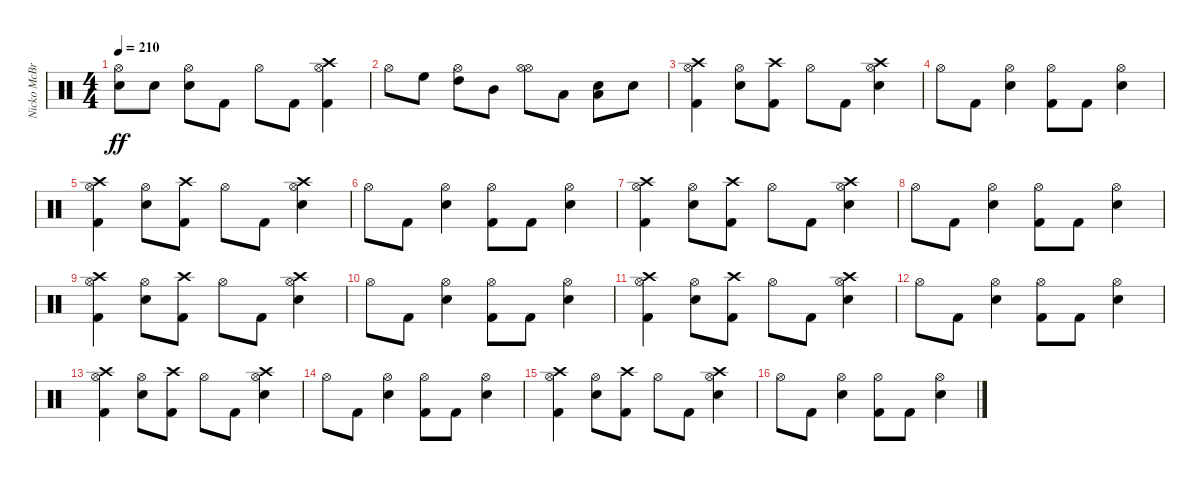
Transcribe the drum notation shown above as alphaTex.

\track ("Nicko McBrain" "Nicko McBr") {instrument percussion}
\staff {score}
\articulation defaults
\ts (4 4)
\tempo 210
\clef neutral
\ks c
("Snare (hit) 2" "Hi-Hat (open)").8{dy ff} "Snare (hit) 2".8 ("Snare (hit) 2" "Hi-Hat (open)").8 "Kick (hit) 2".8 "Hi-Hat (open)".8 "Kick (hit) 2".8 ("Kick (hit) 2" "Hi-Hat (open)" "Crash high (hit)").4 |
"Hi-Hat (open)".8 "High Floor Tom (hit)".8 ("Hi-Hat (open)" "High Tom (hit)").8 "Mid Tom (hit)".8 ("Hi-Hat (open)" "Hi-Hat (open)").8 "Low Tom (hit)".8 ("Snare (hit) 2" "Low Tom (hit)").8 "Snare (hit) 2".8 |
("Kick (hit) 2" "Hi-Hat (open)" "Crash high (hit)").4 ("Snare (hit) 2" "Hi-Hat (open)").8 ("Kick (hit) 2" "Crash high (hit)").8 "Hi-Hat (open)".8 "Kick (hit) 2".8 ("Snare (hit) 2" "Hi-Hat (open)" "Crash high (hit)").4 |
"Hi-Hat (open)".8 "Kick (hit) 2".8 ("Snare (hit) 2" "Hi-Hat (open)").4 ("Kick (hit) 2" "Hi-Hat (open)").8 "Kick (hit) 2".8 ("Snare (hit) 2" "Hi-Hat (open)").4 |
("Kick (hit) 2" "Hi-Hat (open)" "Crash high (hit)").4 ("Snare (hit) 2" "Hi-Hat (open)").8 ("Kick (hit) 2" "Crash high (hit)").8 "Hi-Hat (open)".8 "Kick (hit) 2".8 ("Snare (hit) 2" "Hi-Hat (open)" "Crash high (hit)").4 |
"Hi-Hat (open)".8 "Kick (hit) 2".8 ("Snare (hit) 2" "Hi-Hat (open)").4 ("Kick (hit) 2" "Hi-Hat (open)").8 "Kick (hit) 2".8 ("Snare (hit) 2" "Hi-Hat (open)").4 |
("Kick (hit) 2" "Hi-Hat (open)" "Crash high (hit)").4 ("Snare (hit) 2" "Hi-Hat (open)").8 ("Kick (hit) 2" "Crash high (hit)").8 "Hi-Hat (open)".8 "Kick (hit) 2".8 ("Snare (hit) 2" "Hi-Hat (open)" "Crash high (hit)").4 |
"Hi-Hat (open)".8 "Kick (hit) 2".8 ("Snare (hit) 2" "Hi-Hat (open)").4 ("Kick (hit) 2" "Hi-Hat (open)").8 "Kick (hit) 2".8 ("Snare (hit) 2" "Hi-Hat (open)").4 |
("Kick (hit) 2" "Hi-Hat (open)" "Crash high (hit)").4 ("Snare (hit) 2" "Hi-Hat (open)").8 ("Kick (hit) 2" "Crash high (hit)").8 "Hi-Hat (open)".8 "Kick (hit) 2".8 ("Snare (hit) 2" "Hi-Hat (open)" "Crash high (hit)").4 |
"Hi-Hat (open)".8 "Kick (hit) 2".8 ("Snare (hit) 2" "Hi-Hat (open)").4 ("Kick (hit) 2" "Hi-Hat (open)").8 "Kick (hit) 2".8 ("Snare (hit) 2" "Hi-Hat (open)").4 |
("Kick (hit) 2" "Hi-Hat (open)" "Crash high (hit)").4 ("Snare (hit) 2" "Hi-Hat (open)").8 ("Kick (hit) 2" "Crash high (hit)").8 "Hi-Hat (open)".8 "Kick (hit) 2".8 ("Snare (hit) 2" "Hi-Hat (open)" "Crash high (hit)").4 |
"Hi-Hat (open)".8 "Kick (hit) 2".8 ("Snare (hit) 2" "Hi-Hat (open)").4 ("Kick (hit) 2" "Hi-Hat (open)").8 "Kick (hit) 2".8 ("Snare (hit) 2" "Hi-Hat (open)").4 |
("Kick (hit) 2" "Hi-Hat (open)" "Crash high (hit)").4 ("Snare (hit) 2" "Hi-Hat (open)").8 ("Kick (hit) 2" "Crash high (hit)").8 "Hi-Hat (open)".8 "Kick (hit) 2".8 ("Snare (hit) 2" "Hi-Hat (open)" "Crash high (hit)").4 |
"Hi-Hat (open)".8 "Kick (hit) 2".8 ("Snare (hit) 2" "Hi-Hat (open)").4 ("Kick (hit) 2" "Hi-Hat (open)").8 "Kick (hit) 2".8 ("Snare (hit) 2" "Hi-Hat (open)").4 |
("Kick (hit) 2" "Hi-Hat (open)" "Crash high (hit)").4 ("Snare (hit) 2" "Hi-Hat (open)").8 ("Kick (hit) 2" "Crash high (hit)").8 "Hi-Hat (open)".8 "Kick (hit) 2".8 ("Snare (hit) 2" "Hi-Hat (open)" "Crash high (hit)").4 |
"Hi-Hat (open)".8 "Kick (hit) 2".8 ("Snare (hit) 2" "Hi-Hat (open)").4 ("Kick (hit) 2" "Hi-Hat (open)").8 "Kick (hit) 2".8 ("Snare (hit) 2" "Hi-Hat (open)").4
